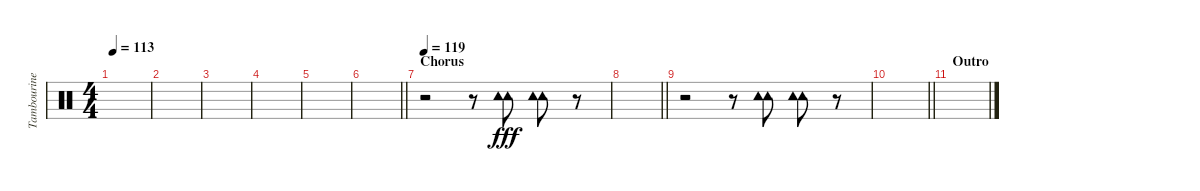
\track ("Tambourine (John Lennon)" "Tambourine") {instrument percussion}
\staff {score}
\articulation defaults
\ts (4 4)
\tempo 113
\clef neutral
\ks c
|
|
|
|
|
\barLineRight lightlight
|
\section ("" "Chorus")
\tempo 119
r.2 r.8 ("Tambourine (hit)" "Tambourine (hit)").8{bd 60 dy fff} ("Tambourine (hit)" "Tambourine (hit)").8{bd 60} r.8 |
\barLineRight lightlight
|
r.2 r.8 ("Tambourine (hit)" "Tambourine (hit)").8{bd 60} ("Tambourine (hit)" "Tambourine (hit)").8{bd 60} r.8 |
\barLineRight lightlight
|
\section ("" "Outro")
